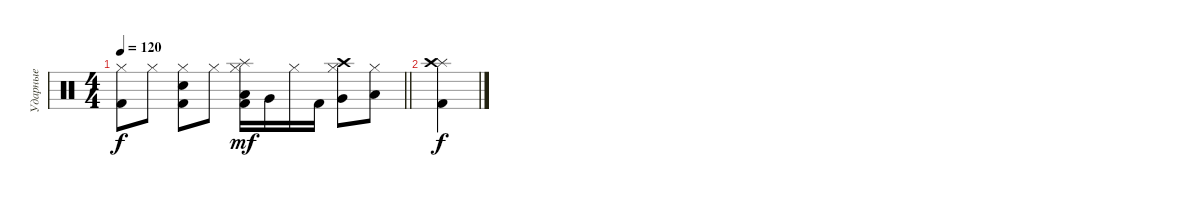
\track ("Ударные" "Ударные") {instrument percussion}
\staff {score}
\articulation defaults
\ts (4 4)
\tempo 120
\clef neutral
\barLineRight lightlight
\ks c
("Hi-Hat (closed)" "Kick (hit) 2").8{dy f} "Hi-Hat (closed)".8 ("Hi-Hat (closed)" "Kick (hit) 2" "Electric Snare (hit)").8 "Hi-Hat (closed)".8 ("Low Tom (hit)" "Hi-Hat (closed)" "Kick (hit) 2" "Splash (hit)").16{dy mf} "Very Low Tom (hit)".16 "Hi-Hat (closed)".16 "Kick (hit) 2".16 ("Very Low Tom (hit)" "Hi-Hat (closed)" "Crash high (hit)").8 ("Low Floor Tom (hit)" "Hi-Hat (closed)").8 |
("Kick (hit) 2" "Splash (hit)" "Crash high (hit)").4{dy f}
